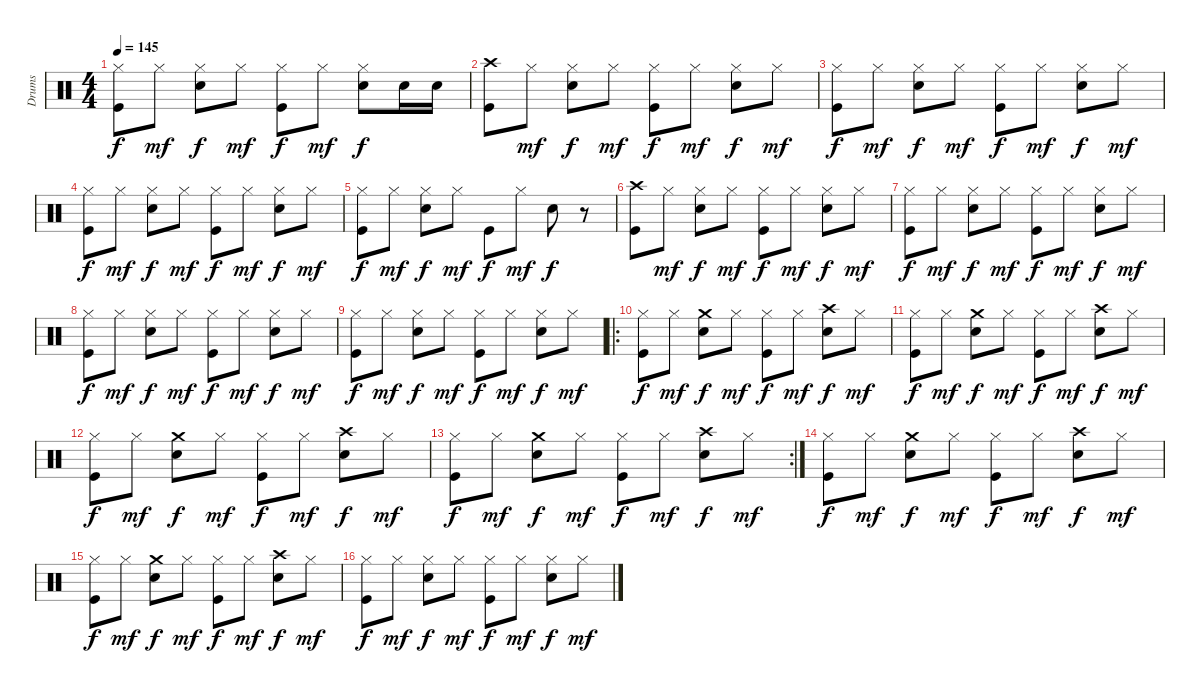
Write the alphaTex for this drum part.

\track ("Drums" "Drums") {instrument percussion}
\staff {score}
\articulation defaults
\ts (4 4)
\tempo 145
\clef neutral
\ks c
("Hi-Hat (closed)" "Kick (hit)").8{dy f} "Hi-Hat (closed)".8{dy mf} ("Hi-Hat (closed)" "Snare (hit) 2").8{dy f} "Hi-Hat (closed)".8{dy mf} ("Hi-Hat (closed)" "Kick (hit)").8{dy f} "Hi-Hat (closed)".8{dy mf} ("Hi-Hat (closed)" "Snare (hit) 2").8{dy f} "Snare (hit) 2".16 "Snare (hit) 2".16 |
("Crash high (hit)" "Kick (hit)").8 "Hi-Hat (closed)".8{dy mf} ("Hi-Hat (closed)" "Snare (hit) 2").8{dy f} "Hi-Hat (closed)".8{dy mf} ("Hi-Hat (closed)" "Kick (hit)").8{dy f} "Hi-Hat (closed)".8{dy mf} ("Hi-Hat (closed)" "Snare (hit) 2").8{dy f} "Hi-Hat (closed)".8{dy mf} |
("Hi-Hat (closed)" "Kick (hit)").8{dy f} "Hi-Hat (closed)".8{dy mf} ("Hi-Hat (closed)" "Snare (hit) 2").8{dy f} "Hi-Hat (closed)".8{dy mf} ("Hi-Hat (closed)" "Kick (hit)").8{dy f} "Hi-Hat (closed)".8{dy mf} ("Hi-Hat (closed)" "Snare (hit) 2").8{dy f} "Hi-Hat (closed)".8{dy mf} |
("Hi-Hat (closed)" "Kick (hit)").8{dy f} "Hi-Hat (closed)".8{dy mf} ("Hi-Hat (closed)" "Snare (hit) 2").8{dy f} "Hi-Hat (closed)".8{dy mf} ("Hi-Hat (closed)" "Kick (hit)").8{dy f} "Hi-Hat (closed)".8{dy mf} ("Hi-Hat (closed)" "Snare (hit) 2").8{dy f} "Hi-Hat (closed)".8{dy mf} |
("Hi-Hat (closed)" "Kick (hit)").8{dy f} "Hi-Hat (closed)".8{dy mf} ("Hi-Hat (closed)" "Snare (hit) 2").8{dy f} "Hi-Hat (closed)".8{dy mf} "Kick (hit)".8{dy f} "Hi-Hat (closed)".8{dy mf} "Snare (hit) 2".8{dy f} r.8 |
("Crash high (hit)" "Kick (hit)").8 "Hi-Hat (closed)".8{dy mf} ("Hi-Hat (closed)" "Snare (hit) 2").8{dy f} "Hi-Hat (closed)".8{dy mf} ("Hi-Hat (closed)" "Kick (hit)").8{dy f} "Hi-Hat (closed)".8{dy mf} ("Hi-Hat (closed)" "Snare (hit) 2").8{dy f} "Hi-Hat (closed)".8{dy mf} |
("Hi-Hat (closed)" "Kick (hit)").8{dy f} "Hi-Hat (closed)".8{dy mf} ("Hi-Hat (closed)" "Snare (hit) 2").8{dy f} "Hi-Hat (closed)".8{dy mf} ("Hi-Hat (closed)" "Kick (hit)").8{dy f} "Hi-Hat (closed)".8{dy mf} ("Hi-Hat (closed)" "Snare (hit) 2").8{dy f} "Hi-Hat (closed)".8{dy mf} |
("Hi-Hat (closed)" "Kick (hit)").8{dy f} "Hi-Hat (closed)".8{dy mf} ("Hi-Hat (closed)" "Snare (hit) 2").8{dy f} "Hi-Hat (closed)".8{dy mf} ("Hi-Hat (closed)" "Kick (hit)").8{dy f} "Hi-Hat (closed)".8{dy mf} ("Hi-Hat (closed)" "Snare (hit) 2").8{dy f} "Hi-Hat (closed)".8{dy mf} |
("Hi-Hat (closed)" "Kick (hit)").8{dy f} "Hi-Hat (closed)".8{dy mf} ("Hi-Hat (closed)" "Snare (hit) 2").8{dy f} "Hi-Hat (closed)".8{dy mf} ("Hi-Hat (closed)" "Kick (hit)").8{dy f} "Hi-Hat (closed)".8{dy mf} ("Hi-Hat (closed)" "Snare (hit) 2").8{dy f} "Hi-Hat (closed)".8{dy mf} |
\ro
("Hi-Hat (closed)" "Kick (hit)").8{dy f} "Hi-Hat (closed)".8{dy mf} ("Snare (hit) 2" "Crash medium (hit)").8{dy f} "Hi-Hat (closed)".8{dy mf} ("Hi-Hat (closed)" "Kick (hit)").8{dy f} "Hi-Hat (closed)".8{dy mf} ("Snare (hit) 2" "Crash high (hit)").8{dy f} "Hi-Hat (closed)".8{dy mf} |
("Hi-Hat (closed)" "Kick (hit)").8{dy f} "Hi-Hat (closed)".8{dy mf} ("Snare (hit) 2" "Crash medium (hit)").8{dy f} "Hi-Hat (closed)".8{dy mf} ("Hi-Hat (closed)" "Kick (hit)").8{dy f} "Hi-Hat (closed)".8{dy mf} ("Snare (hit) 2" "Crash high (hit)").8{dy f} "Hi-Hat (closed)".8{dy mf} |
("Hi-Hat (closed)" "Kick (hit)").8{dy f} "Hi-Hat (closed)".8{dy mf} ("Snare (hit) 2" "Crash medium (hit)").8{dy f} "Hi-Hat (closed)".8{dy mf} ("Hi-Hat (closed)" "Kick (hit)").8{dy f} "Hi-Hat (closed)".8{dy mf} ("Snare (hit) 2" "Crash high (hit)").8{dy f} "Hi-Hat (closed)".8{dy mf} |
\rc 2
("Hi-Hat (closed)" "Kick (hit)").8{dy f} "Hi-Hat (closed)".8{dy mf} ("Snare (hit) 2" "Crash medium (hit)").8{dy f} "Hi-Hat (closed)".8{dy mf} ("Hi-Hat (closed)" "Kick (hit)").8{dy f} "Hi-Hat (closed)".8{dy mf} ("Snare (hit) 2" "Crash high (hit)").8{dy f} "Hi-Hat (closed)".8{dy mf} |
("Hi-Hat (closed)" "Kick (hit)").8{dy f} "Hi-Hat (closed)".8{dy mf} ("Snare (hit) 2" "Crash medium (hit)").8{dy f} "Hi-Hat (closed)".8{dy mf} ("Hi-Hat (closed)" "Kick (hit)").8{dy f} "Hi-Hat (closed)".8{dy mf} ("Snare (hit) 2" "Crash high (hit)").8{dy f} "Hi-Hat (closed)".8{dy mf} |
("Hi-Hat (closed)" "Kick (hit)").8{dy f} "Hi-Hat (closed)".8{dy mf} ("Snare (hit) 2" "Crash medium (hit)").8{dy f} "Hi-Hat (closed)".8{dy mf} ("Hi-Hat (closed)" "Kick (hit)").8{dy f} "Hi-Hat (closed)".8{dy mf} ("Snare (hit) 2" "Crash high (hit)").8{dy f} "Hi-Hat (closed)".8{dy mf} |
("Hi-Hat (closed)" "Kick (hit)").8{dy f} "Hi-Hat (closed)".8{dy mf} ("Hi-Hat (closed)" "Snare (hit) 2").8{dy f} "Hi-Hat (closed)".8{dy mf} ("Hi-Hat (closed)" "Kick (hit)").8{dy f} "Hi-Hat (closed)".8{dy mf} ("Hi-Hat (closed)" "Snare (hit) 2").8{dy f} "Hi-Hat (closed)".8{dy mf}
